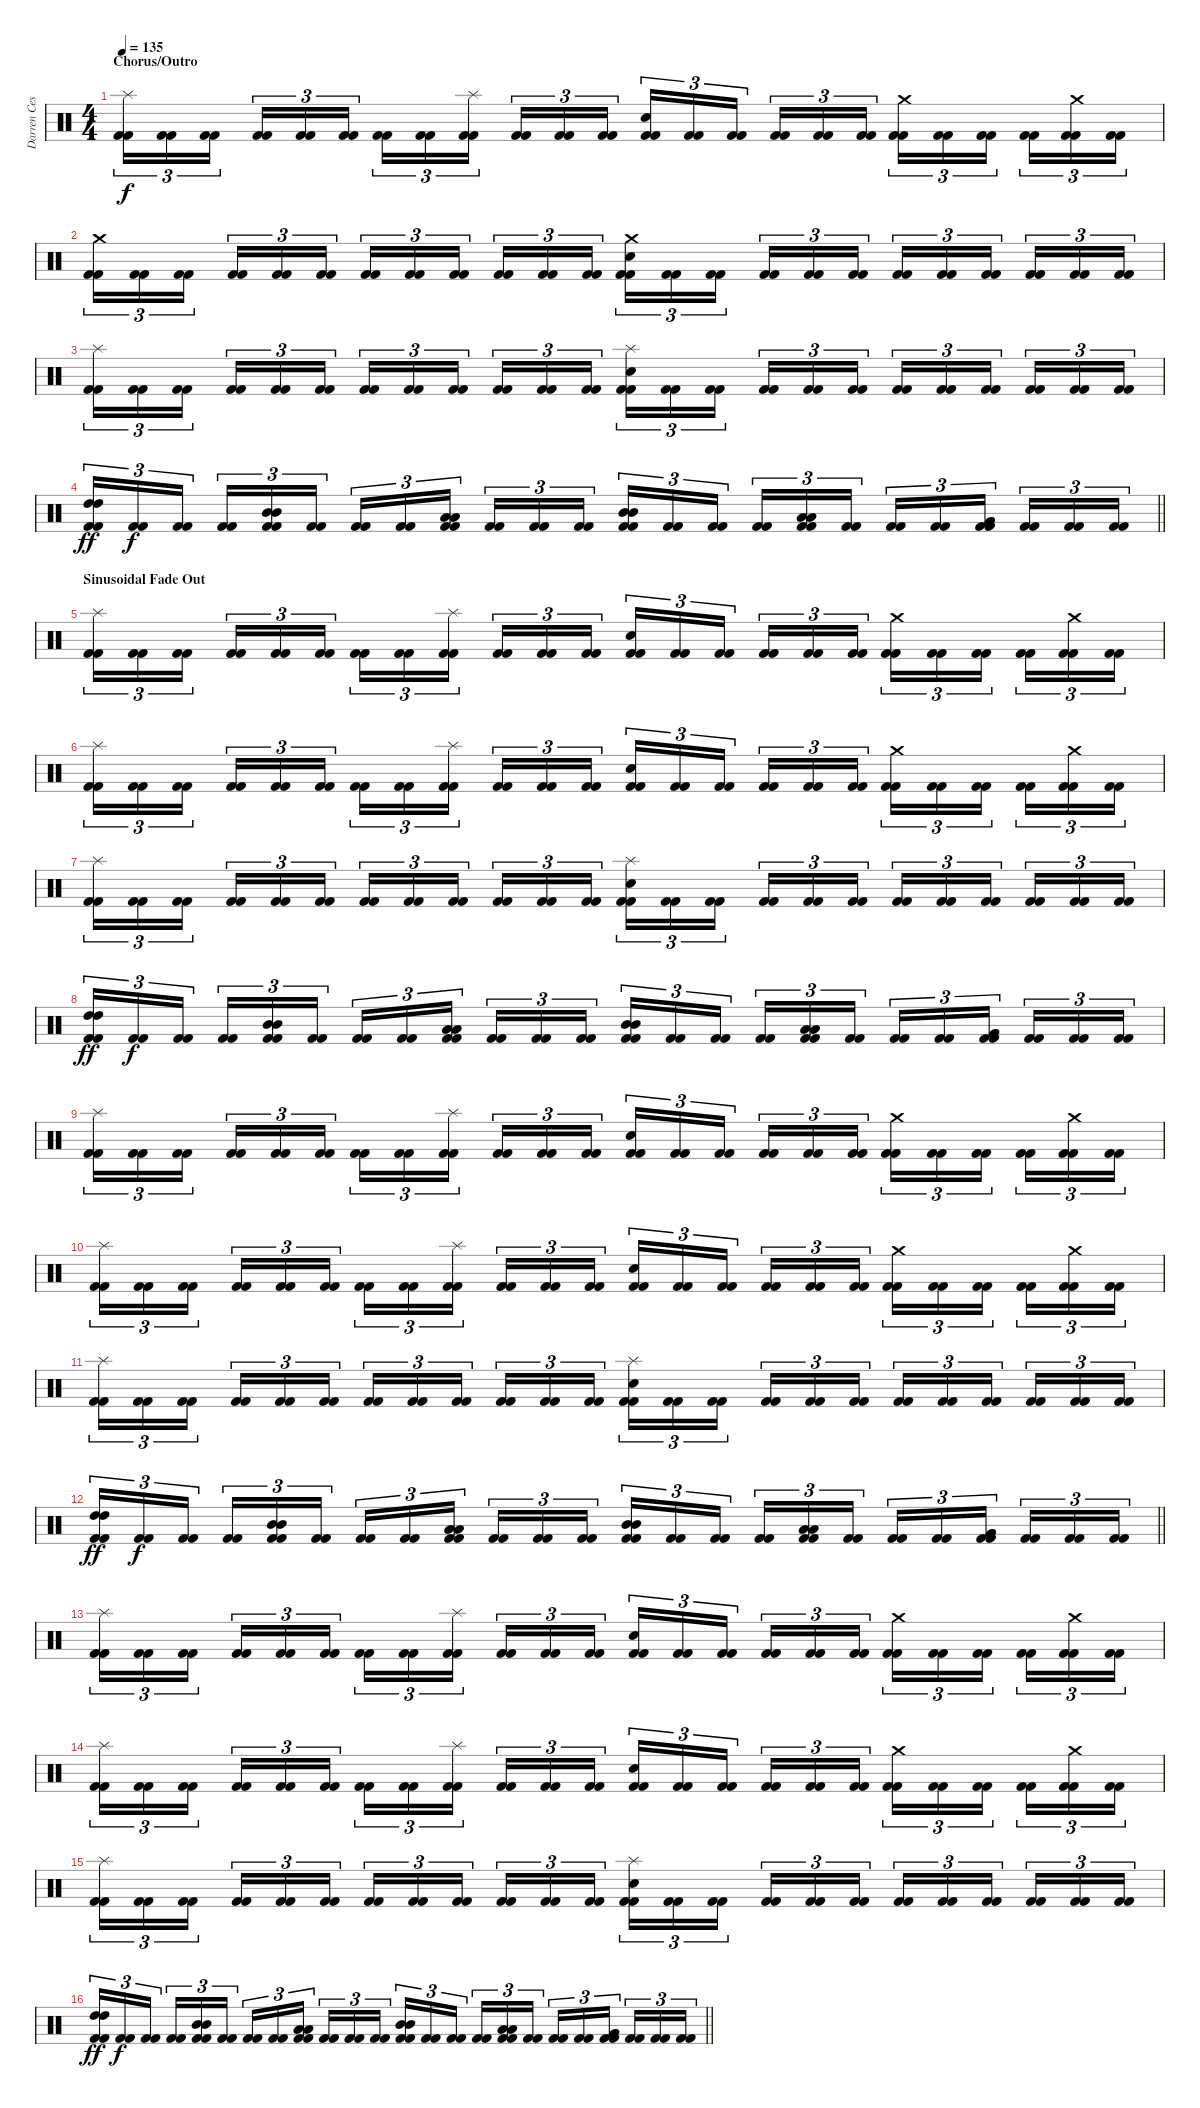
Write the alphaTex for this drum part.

\track ("Darren Cesca" "Darren Ces") {instrument percussion}
\staff {score}
\articulation defaults
\ts (4 4)
\section ("" "Chorus/Outro")
\tempo 135
\clef neutral
\ks c
("Splash (hit)" "Kick (hit) 2" "Kick (hit) 2").16{tu (3 2) dy f} ("Kick (hit) 2" "Kick (hit) 2").16{tu (3 2)} ("Kick (hit) 2" "Kick (hit) 2").16{tu (3 2) beam splitsecondary} ("Kick (hit) 2" "Kick (hit) 2").16{tu (3 2)} ("Kick (hit) 2" "Kick (hit) 2").16{tu (3 2)} ("Kick (hit) 2" "Kick (hit) 2").16{tu (3 2)} ("Kick (hit) 2" "Kick (hit) 2").16{tu (3 2)} ("Kick (hit) 2" "Kick (hit) 2").16{tu (3 2)} ("Splash (hit)" "Kick (hit) 2" "Kick (hit) 2").16{tu (3 2) beam splitsecondary} ("Kick (hit) 2" "Kick (hit) 2").16{tu (3 2)} ("Kick (hit) 2" "Kick (hit) 2").16{tu (3 2)} ("Kick (hit) 2" "Kick (hit) 2").16{tu (3 2)} ("Electric Snare (hit)" "Kick (hit) 2" "Kick (hit) 2").16{tu (3 2)} ("Kick (hit) 2" "Kick (hit) 2").16{tu (3 2)} ("Kick (hit) 2" "Kick (hit) 2").16{tu (3 2) beam splitsecondary} ("Kick (hit) 2" "Kick (hit) 2").16{tu (3 2)} ("Kick (hit) 2" "Kick (hit) 2").16{tu (3 2)} ("Kick (hit) 2" "Kick (hit) 2").16{tu (3 2)} ("Crash medium (hit)" "Kick (hit) 2" "Kick (hit) 2").16{tu (3 2)} ("Kick (hit) 2" "Kick (hit) 2").16{tu (3 2)} ("Kick (hit) 2" "Kick (hit) 2").16{tu (3 2) beam splitsecondary} ("Kick (hit) 2" "Kick (hit) 2").16{tu (3 2)} ("Crash medium (hit)" "Kick (hit) 2" "Kick (hit) 2").16{tu (3 2)} ("Kick (hit) 2" "Kick (hit) 2").16{tu (3 2)} |
("Crash medium (hit)" "Kick (hit) 2" "Kick (hit) 2").16{tu (3 2)} ("Kick (hit) 2" "Kick (hit) 2").16{tu (3 2)} ("Kick (hit) 2" "Kick (hit) 2").16{tu (3 2) beam splitsecondary} ("Kick (hit) 2" "Kick (hit) 2").16{tu (3 2)} ("Kick (hit) 2" "Kick (hit) 2").16{tu (3 2)} ("Kick (hit) 2" "Kick (hit) 2").16{tu (3 2)} ("Kick (hit) 2" "Kick (hit) 2").16{tu (3 2)} ("Kick (hit) 2" "Kick (hit) 2").16{tu (3 2)} ("Kick (hit) 2" "Kick (hit) 2").16{tu (3 2) beam splitsecondary} ("Kick (hit) 2" "Kick (hit) 2").16{tu (3 2)} ("Kick (hit) 2" "Kick (hit) 2").16{tu (3 2)} ("Kick (hit) 2" "Kick (hit) 2").16{tu (3 2)} ("Crash medium (hit)" "Electric Snare (hit)" "Kick (hit) 2" "Kick (hit) 2").16{tu (3 2)} ("Kick (hit) 2" "Kick (hit) 2").16{tu (3 2)} ("Kick (hit) 2" "Kick (hit) 2").16{tu (3 2) beam splitsecondary} ("Kick (hit) 2" "Kick (hit) 2").16{tu (3 2)} ("Kick (hit) 2" "Kick (hit) 2").16{tu (3 2)} ("Kick (hit) 2" "Kick (hit) 2").16{tu (3 2)} ("Kick (hit) 2" "Kick (hit) 2").16{tu (3 2)} ("Kick (hit) 2" "Kick (hit) 2").16{tu (3 2)} ("Kick (hit) 2" "Kick (hit) 2").16{tu (3 2) beam splitsecondary} ("Kick (hit) 2" "Kick (hit) 2").16{tu (3 2)} ("Kick (hit) 2" "Kick (hit) 2").16{tu (3 2)} ("Kick (hit) 2" "Kick (hit) 2").16{tu (3 2)} |
("Splash (hit)" "Kick (hit) 2" "Kick (hit) 2").16{tu (3 2)} ("Kick (hit) 2" "Kick (hit) 2").16{tu (3 2)} ("Kick (hit) 2" "Kick (hit) 2").16{tu (3 2) beam splitsecondary} ("Kick (hit) 2" "Kick (hit) 2").16{tu (3 2)} ("Kick (hit) 2" "Kick (hit) 2").16{tu (3 2)} ("Kick (hit) 2" "Kick (hit) 2").16{tu (3 2)} ("Kick (hit) 2" "Kick (hit) 2").16{tu (3 2)} ("Kick (hit) 2" "Kick (hit) 2").16{tu (3 2)} ("Kick (hit) 2" "Kick (hit) 2").16{tu (3 2) beam splitsecondary} ("Kick (hit) 2" "Kick (hit) 2").16{tu (3 2)} ("Kick (hit) 2" "Kick (hit) 2").16{tu (3 2)} ("Kick (hit) 2" "Kick (hit) 2").16{tu (3 2)} ("Splash (hit)" "Electric Snare (hit)" "Kick (hit) 2" "Kick (hit) 2").16{tu (3 2)} ("Kick (hit) 2" "Kick (hit) 2").16{tu (3 2)} ("Kick (hit) 2" "Kick (hit) 2").16{tu (3 2) beam splitsecondary} ("Kick (hit) 2" "Kick (hit) 2").16{tu (3 2)} ("Kick (hit) 2" "Kick (hit) 2").16{tu (3 2)} ("Kick (hit) 2" "Kick (hit) 2").16{tu (3 2)} ("Kick (hit) 2" "Kick (hit) 2").16{tu (3 2)} ("Kick (hit) 2" "Kick (hit) 2").16{tu (3 2)} ("Kick (hit) 2" "Kick (hit) 2").16{tu (3 2) beam splitsecondary} ("Kick (hit) 2" "Kick (hit) 2").16{tu (3 2)} ("Kick (hit) 2" "Kick (hit) 2").16{tu (3 2)} ("Kick (hit) 2" "Kick (hit) 2").16{tu (3 2)} |
\barLineRight lightlight
("High Tom (hit)" "High Tom (hit)" "Kick (hit) 2" "Kick (hit) 2").16{tu (3 2) dy ff} ("Kick (hit) 2" "Kick (hit) 2").16{tu (3 2) dy f} ("Kick (hit) 2" "Kick (hit) 2").16{tu (3 2) beam splitsecondary} ("Kick (hit) 2" "Kick (hit) 2").16{tu (3 2)} ("Mid Tom (hit)" "Mid Tom (hit)" "Kick (hit) 2" "Kick (hit) 2").16{tu (3 2)} ("Kick (hit) 2" "Kick (hit) 2").16{tu (3 2)} ("Kick (hit) 2" "Kick (hit) 2").16{tu (3 2)} ("Kick (hit) 2" "Kick (hit) 2").16{tu (3 2)} ("Low Tom (hit)" "Low Tom (hit)" "Kick (hit) 2" "Kick (hit) 2").16{tu (3 2) beam splitsecondary} ("Kick (hit) 2" "Kick (hit) 2").16{tu (3 2)} ("Kick (hit) 2" "Kick (hit) 2").16{tu (3 2)} ("Kick (hit) 2" "Kick (hit) 2").16{tu (3 2)} ("Mid Tom (hit)" "Mid Tom (hit)" "Kick (hit) 2" "Kick (hit) 2").16{tu (3 2)} ("Kick (hit) 2" "Kick (hit) 2").16{tu (3 2)} ("Kick (hit) 2" "Kick (hit) 2").16{tu (3 2) beam splitsecondary} ("Kick (hit) 2" "Kick (hit) 2").16{tu (3 2)} ("Low Tom (hit)" "Low Tom (hit)" "Kick (hit) 2" "Kick (hit) 2").16{tu (3 2)} ("Kick (hit) 2" "Kick (hit) 2").16{tu (3 2)} ("Kick (hit) 2" "Kick (hit) 2").16{tu (3 2)} ("Kick (hit) 2" "Kick (hit) 2").16{tu (3 2)} ("Very Low Tom (hit)" "Very Low Tom (hit)" "Kick (hit) 2" "Kick (hit) 2").16{tu (3 2) beam splitsecondary} ("Kick (hit) 2" "Kick (hit) 2").16{tu (3 2)} ("Kick (hit) 2" "Kick (hit) 2").16{tu (3 2)} ("Kick (hit) 2" "Kick (hit) 2").16{tu (3 2)} |
\section ("" "Sinusoidal Fade Out")
("Splash (hit)" "Kick (hit) 2" "Kick (hit) 2").16{tu (3 2)} ("Kick (hit) 2" "Kick (hit) 2").16{tu (3 2)} ("Kick (hit) 2" "Kick (hit) 2").16{tu (3 2) beam splitsecondary} ("Kick (hit) 2" "Kick (hit) 2").16{tu (3 2)} ("Kick (hit) 2" "Kick (hit) 2").16{tu (3 2)} ("Kick (hit) 2" "Kick (hit) 2").16{tu (3 2)} ("Kick (hit) 2" "Kick (hit) 2").16{tu (3 2)} ("Kick (hit) 2" "Kick (hit) 2").16{tu (3 2)} ("Splash (hit)" "Kick (hit) 2" "Kick (hit) 2").16{tu (3 2) beam splitsecondary} ("Kick (hit) 2" "Kick (hit) 2").16{tu (3 2)} ("Kick (hit) 2" "Kick (hit) 2").16{tu (3 2)} ("Kick (hit) 2" "Kick (hit) 2").16{tu (3 2)} ("Electric Snare (hit)" "Kick (hit) 2" "Kick (hit) 2").16{tu (3 2)} ("Kick (hit) 2" "Kick (hit) 2").16{tu (3 2)} ("Kick (hit) 2" "Kick (hit) 2").16{tu (3 2) beam splitsecondary} ("Kick (hit) 2" "Kick (hit) 2").16{tu (3 2)} ("Kick (hit) 2" "Kick (hit) 2").16{tu (3 2)} ("Kick (hit) 2" "Kick (hit) 2").16{tu (3 2)} ("Crash medium (hit)" "Kick (hit) 2" "Kick (hit) 2").16{tu (3 2)} ("Kick (hit) 2" "Kick (hit) 2").16{tu (3 2)} ("Kick (hit) 2" "Kick (hit) 2").16{tu (3 2) beam splitsecondary} ("Kick (hit) 2" "Kick (hit) 2").16{tu (3 2)} ("Crash medium (hit)" "Kick (hit) 2" "Kick (hit) 2").16{tu (3 2)} ("Kick (hit) 2" "Kick (hit) 2").16{tu (3 2)} |
("Splash (hit)" "Kick (hit) 2" "Kick (hit) 2").16{tu (3 2)} ("Kick (hit) 2" "Kick (hit) 2").16{tu (3 2)} ("Kick (hit) 2" "Kick (hit) 2").16{tu (3 2) beam splitsecondary} ("Kick (hit) 2" "Kick (hit) 2").16{tu (3 2)} ("Kick (hit) 2" "Kick (hit) 2").16{tu (3 2)} ("Kick (hit) 2" "Kick (hit) 2").16{tu (3 2)} ("Kick (hit) 2" "Kick (hit) 2").16{tu (3 2)} ("Kick (hit) 2" "Kick (hit) 2").16{tu (3 2)} ("Splash (hit)" "Kick (hit) 2" "Kick (hit) 2").16{tu (3 2) beam splitsecondary} ("Kick (hit) 2" "Kick (hit) 2").16{tu (3 2)} ("Kick (hit) 2" "Kick (hit) 2").16{tu (3 2)} ("Kick (hit) 2" "Kick (hit) 2").16{tu (3 2)} ("Electric Snare (hit)" "Kick (hit) 2" "Kick (hit) 2").16{tu (3 2)} ("Kick (hit) 2" "Kick (hit) 2").16{tu (3 2)} ("Kick (hit) 2" "Kick (hit) 2").16{tu (3 2) beam splitsecondary} ("Kick (hit) 2" "Kick (hit) 2").16{tu (3 2)} ("Kick (hit) 2" "Kick (hit) 2").16{tu (3 2)} ("Kick (hit) 2" "Kick (hit) 2").16{tu (3 2)} ("Crash medium (hit)" "Kick (hit) 2" "Kick (hit) 2").16{tu (3 2)} ("Kick (hit) 2" "Kick (hit) 2").16{tu (3 2)} ("Kick (hit) 2" "Kick (hit) 2").16{tu (3 2) beam splitsecondary} ("Kick (hit) 2" "Kick (hit) 2").16{tu (3 2)} ("Crash medium (hit)" "Kick (hit) 2" "Kick (hit) 2").16{tu (3 2)} ("Kick (hit) 2" "Kick (hit) 2").16{tu (3 2)} |
("Splash (hit)" "Kick (hit) 2" "Kick (hit) 2").16{tu (3 2)} ("Kick (hit) 2" "Kick (hit) 2").16{tu (3 2)} ("Kick (hit) 2" "Kick (hit) 2").16{tu (3 2) beam splitsecondary} ("Kick (hit) 2" "Kick (hit) 2").16{tu (3 2)} ("Kick (hit) 2" "Kick (hit) 2").16{tu (3 2)} ("Kick (hit) 2" "Kick (hit) 2").16{tu (3 2)} ("Kick (hit) 2" "Kick (hit) 2").16{tu (3 2)} ("Kick (hit) 2" "Kick (hit) 2").16{tu (3 2)} ("Kick (hit) 2" "Kick (hit) 2").16{tu (3 2) beam splitsecondary} ("Kick (hit) 2" "Kick (hit) 2").16{tu (3 2)} ("Kick (hit) 2" "Kick (hit) 2").16{tu (3 2)} ("Kick (hit) 2" "Kick (hit) 2").16{tu (3 2)} ("Splash (hit)" "Electric Snare (hit)" "Kick (hit) 2" "Kick (hit) 2").16{tu (3 2)} ("Kick (hit) 2" "Kick (hit) 2").16{tu (3 2)} ("Kick (hit) 2" "Kick (hit) 2").16{tu (3 2) beam splitsecondary} ("Kick (hit) 2" "Kick (hit) 2").16{tu (3 2)} ("Kick (hit) 2" "Kick (hit) 2").16{tu (3 2)} ("Kick (hit) 2" "Kick (hit) 2").16{tu (3 2)} ("Kick (hit) 2" "Kick (hit) 2").16{tu (3 2)} ("Kick (hit) 2" "Kick (hit) 2").16{tu (3 2)} ("Kick (hit) 2" "Kick (hit) 2").16{tu (3 2) beam splitsecondary} ("Kick (hit) 2" "Kick (hit) 2").16{tu (3 2)} ("Kick (hit) 2" "Kick (hit) 2").16{tu (3 2)} ("Kick (hit) 2" "Kick (hit) 2").16{tu (3 2)} |
("High Tom (hit)" "High Tom (hit)" "Kick (hit) 2" "Kick (hit) 2").16{tu (3 2) dy ff} ("Kick (hit) 2" "Kick (hit) 2").16{tu (3 2) dy f} ("Kick (hit) 2" "Kick (hit) 2").16{tu (3 2) beam splitsecondary} ("Kick (hit) 2" "Kick (hit) 2").16{tu (3 2)} ("Mid Tom (hit)" "Mid Tom (hit)" "Kick (hit) 2" "Kick (hit) 2").16{tu (3 2)} ("Kick (hit) 2" "Kick (hit) 2").16{tu (3 2)} ("Kick (hit) 2" "Kick (hit) 2").16{tu (3 2)} ("Kick (hit) 2" "Kick (hit) 2").16{tu (3 2)} ("Low Tom (hit)" "Low Tom (hit)" "Kick (hit) 2" "Kick (hit) 2").16{tu (3 2) beam splitsecondary} ("Kick (hit) 2" "Kick (hit) 2").16{tu (3 2)} ("Kick (hit) 2" "Kick (hit) 2").16{tu (3 2)} ("Kick (hit) 2" "Kick (hit) 2").16{tu (3 2)} ("Mid Tom (hit)" "Mid Tom (hit)" "Kick (hit) 2" "Kick (hit) 2").16{tu (3 2)} ("Kick (hit) 2" "Kick (hit) 2").16{tu (3 2)} ("Kick (hit) 2" "Kick (hit) 2").16{tu (3 2) beam splitsecondary} ("Kick (hit) 2" "Kick (hit) 2").16{tu (3 2)} ("Low Tom (hit)" "Low Tom (hit)" "Kick (hit) 2" "Kick (hit) 2").16{tu (3 2)} ("Kick (hit) 2" "Kick (hit) 2").16{tu (3 2)} ("Kick (hit) 2" "Kick (hit) 2").16{tu (3 2)} ("Kick (hit) 2" "Kick (hit) 2").16{tu (3 2)} ("Very Low Tom (hit)" "Very Low Tom (hit)" "Kick (hit) 2" "Kick (hit) 2").16{tu (3 2) beam splitsecondary} ("Kick (hit) 2" "Kick (hit) 2").16{tu (3 2)} ("Kick (hit) 2" "Kick (hit) 2").16{tu (3 2)} ("Kick (hit) 2" "Kick (hit) 2").16{tu (3 2)} |
("Splash (hit)" "Kick (hit) 2" "Kick (hit) 2").16{tu (3 2)} ("Kick (hit) 2" "Kick (hit) 2").16{tu (3 2)} ("Kick (hit) 2" "Kick (hit) 2").16{tu (3 2) beam splitsecondary} ("Kick (hit) 2" "Kick (hit) 2").16{tu (3 2)} ("Kick (hit) 2" "Kick (hit) 2").16{tu (3 2)} ("Kick (hit) 2" "Kick (hit) 2").16{tu (3 2)} ("Kick (hit) 2" "Kick (hit) 2").16{tu (3 2)} ("Kick (hit) 2" "Kick (hit) 2").16{tu (3 2)} ("Splash (hit)" "Kick (hit) 2" "Kick (hit) 2").16{tu (3 2) beam splitsecondary} ("Kick (hit) 2" "Kick (hit) 2").16{tu (3 2)} ("Kick (hit) 2" "Kick (hit) 2").16{tu (3 2)} ("Kick (hit) 2" "Kick (hit) 2").16{tu (3 2)} ("Electric Snare (hit)" "Kick (hit) 2" "Kick (hit) 2").16{tu (3 2)} ("Kick (hit) 2" "Kick (hit) 2").16{tu (3 2)} ("Kick (hit) 2" "Kick (hit) 2").16{tu (3 2) beam splitsecondary} ("Kick (hit) 2" "Kick (hit) 2").16{tu (3 2)} ("Kick (hit) 2" "Kick (hit) 2").16{tu (3 2)} ("Kick (hit) 2" "Kick (hit) 2").16{tu (3 2)} ("Crash medium (hit)" "Kick (hit) 2" "Kick (hit) 2").16{tu (3 2)} ("Kick (hit) 2" "Kick (hit) 2").16{tu (3 2)} ("Kick (hit) 2" "Kick (hit) 2").16{tu (3 2) beam splitsecondary} ("Kick (hit) 2" "Kick (hit) 2").16{tu (3 2)} ("Crash medium (hit)" "Kick (hit) 2" "Kick (hit) 2").16{tu (3 2)} ("Kick (hit) 2" "Kick (hit) 2").16{tu (3 2)} |
("Splash (hit)" "Kick (hit) 2" "Kick (hit) 2").16{tu (3 2)} ("Kick (hit) 2" "Kick (hit) 2").16{tu (3 2)} ("Kick (hit) 2" "Kick (hit) 2").16{tu (3 2) beam splitsecondary} ("Kick (hit) 2" "Kick (hit) 2").16{tu (3 2)} ("Kick (hit) 2" "Kick (hit) 2").16{tu (3 2)} ("Kick (hit) 2" "Kick (hit) 2").16{tu (3 2)} ("Kick (hit) 2" "Kick (hit) 2").16{tu (3 2)} ("Kick (hit) 2" "Kick (hit) 2").16{tu (3 2)} ("Splash (hit)" "Kick (hit) 2" "Kick (hit) 2").16{tu (3 2) beam splitsecondary} ("Kick (hit) 2" "Kick (hit) 2").16{tu (3 2)} ("Kick (hit) 2" "Kick (hit) 2").16{tu (3 2)} ("Kick (hit) 2" "Kick (hit) 2").16{tu (3 2)} ("Electric Snare (hit)" "Kick (hit) 2" "Kick (hit) 2").16{tu (3 2)} ("Kick (hit) 2" "Kick (hit) 2").16{tu (3 2)} ("Kick (hit) 2" "Kick (hit) 2").16{tu (3 2) beam splitsecondary} ("Kick (hit) 2" "Kick (hit) 2").16{tu (3 2)} ("Kick (hit) 2" "Kick (hit) 2").16{tu (3 2)} ("Kick (hit) 2" "Kick (hit) 2").16{tu (3 2)} ("Crash medium (hit)" "Kick (hit) 2" "Kick (hit) 2").16{tu (3 2)} ("Kick (hit) 2" "Kick (hit) 2").16{tu (3 2)} ("Kick (hit) 2" "Kick (hit) 2").16{tu (3 2) beam splitsecondary} ("Kick (hit) 2" "Kick (hit) 2").16{tu (3 2)} ("Crash medium (hit)" "Kick (hit) 2" "Kick (hit) 2").16{tu (3 2)} ("Kick (hit) 2" "Kick (hit) 2").16{tu (3 2)} |
("Splash (hit)" "Kick (hit) 2" "Kick (hit) 2").16{tu (3 2)} ("Kick (hit) 2" "Kick (hit) 2").16{tu (3 2)} ("Kick (hit) 2" "Kick (hit) 2").16{tu (3 2) beam splitsecondary} ("Kick (hit) 2" "Kick (hit) 2").16{tu (3 2)} ("Kick (hit) 2" "Kick (hit) 2").16{tu (3 2)} ("Kick (hit) 2" "Kick (hit) 2").16{tu (3 2)} ("Kick (hit) 2" "Kick (hit) 2").16{tu (3 2)} ("Kick (hit) 2" "Kick (hit) 2").16{tu (3 2)} ("Kick (hit) 2" "Kick (hit) 2").16{tu (3 2) beam splitsecondary} ("Kick (hit) 2" "Kick (hit) 2").16{tu (3 2)} ("Kick (hit) 2" "Kick (hit) 2").16{tu (3 2)} ("Kick (hit) 2" "Kick (hit) 2").16{tu (3 2)} ("Splash (hit)" "Electric Snare (hit)" "Kick (hit) 2" "Kick (hit) 2").16{tu (3 2)} ("Kick (hit) 2" "Kick (hit) 2").16{tu (3 2)} ("Kick (hit) 2" "Kick (hit) 2").16{tu (3 2) beam splitsecondary} ("Kick (hit) 2" "Kick (hit) 2").16{tu (3 2)} ("Kick (hit) 2" "Kick (hit) 2").16{tu (3 2)} ("Kick (hit) 2" "Kick (hit) 2").16{tu (3 2)} ("Kick (hit) 2" "Kick (hit) 2").16{tu (3 2)} ("Kick (hit) 2" "Kick (hit) 2").16{tu (3 2)} ("Kick (hit) 2" "Kick (hit) 2").16{tu (3 2) beam splitsecondary} ("Kick (hit) 2" "Kick (hit) 2").16{tu (3 2)} ("Kick (hit) 2" "Kick (hit) 2").16{tu (3 2)} ("Kick (hit) 2" "Kick (hit) 2").16{tu (3 2)} |
\barLineRight lightlight
("High Tom (hit)" "High Tom (hit)" "Kick (hit) 2" "Kick (hit) 2").16{tu (3 2) dy ff} ("Kick (hit) 2" "Kick (hit) 2").16{tu (3 2) dy f} ("Kick (hit) 2" "Kick (hit) 2").16{tu (3 2) beam splitsecondary} ("Kick (hit) 2" "Kick (hit) 2").16{tu (3 2)} ("Mid Tom (hit)" "Mid Tom (hit)" "Kick (hit) 2" "Kick (hit) 2").16{tu (3 2)} ("Kick (hit) 2" "Kick (hit) 2").16{tu (3 2)} ("Kick (hit) 2" "Kick (hit) 2").16{tu (3 2)} ("Kick (hit) 2" "Kick (hit) 2").16{tu (3 2)} ("Low Tom (hit)" "Low Tom (hit)" "Kick (hit) 2" "Kick (hit) 2").16{tu (3 2) beam splitsecondary} ("Kick (hit) 2" "Kick (hit) 2").16{tu (3 2)} ("Kick (hit) 2" "Kick (hit) 2").16{tu (3 2)} ("Kick (hit) 2" "Kick (hit) 2").16{tu (3 2)} ("Mid Tom (hit)" "Mid Tom (hit)" "Kick (hit) 2" "Kick (hit) 2").16{tu (3 2)} ("Kick (hit) 2" "Kick (hit) 2").16{tu (3 2)} ("Kick (hit) 2" "Kick (hit) 2").16{tu (3 2) beam splitsecondary} ("Kick (hit) 2" "Kick (hit) 2").16{tu (3 2)} ("Low Tom (hit)" "Low Tom (hit)" "Kick (hit) 2" "Kick (hit) 2").16{tu (3 2)} ("Kick (hit) 2" "Kick (hit) 2").16{tu (3 2)} ("Kick (hit) 2" "Kick (hit) 2").16{tu (3 2)} ("Kick (hit) 2" "Kick (hit) 2").16{tu (3 2)} ("Very Low Tom (hit)" "Very Low Tom (hit)" "Kick (hit) 2" "Kick (hit) 2").16{tu (3 2) beam splitsecondary} ("Kick (hit) 2" "Kick (hit) 2").16{tu (3 2)} ("Kick (hit) 2" "Kick (hit) 2").16{tu (3 2)} ("Kick (hit) 2" "Kick (hit) 2").16{tu (3 2)} |
("Splash (hit)" "Kick (hit) 2" "Kick (hit) 2").16{tu (3 2)} ("Kick (hit) 2" "Kick (hit) 2").16{tu (3 2)} ("Kick (hit) 2" "Kick (hit) 2").16{tu (3 2) beam splitsecondary} ("Kick (hit) 2" "Kick (hit) 2").16{tu (3 2)} ("Kick (hit) 2" "Kick (hit) 2").16{tu (3 2)} ("Kick (hit) 2" "Kick (hit) 2").16{tu (3 2)} ("Kick (hit) 2" "Kick (hit) 2").16{tu (3 2)} ("Kick (hit) 2" "Kick (hit) 2").16{tu (3 2)} ("Splash (hit)" "Kick (hit) 2" "Kick (hit) 2").16{tu (3 2) beam splitsecondary} ("Kick (hit) 2" "Kick (hit) 2").16{tu (3 2)} ("Kick (hit) 2" "Kick (hit) 2").16{tu (3 2)} ("Kick (hit) 2" "Kick (hit) 2").16{tu (3 2)} ("Electric Snare (hit)" "Kick (hit) 2" "Kick (hit) 2").16{tu (3 2)} ("Kick (hit) 2" "Kick (hit) 2").16{tu (3 2)} ("Kick (hit) 2" "Kick (hit) 2").16{tu (3 2) beam splitsecondary} ("Kick (hit) 2" "Kick (hit) 2").16{tu (3 2)} ("Kick (hit) 2" "Kick (hit) 2").16{tu (3 2)} ("Kick (hit) 2" "Kick (hit) 2").16{tu (3 2)} ("Crash medium (hit)" "Kick (hit) 2" "Kick (hit) 2").16{tu (3 2)} ("Kick (hit) 2" "Kick (hit) 2").16{tu (3 2)} ("Kick (hit) 2" "Kick (hit) 2").16{tu (3 2) beam splitsecondary} ("Kick (hit) 2" "Kick (hit) 2").16{tu (3 2)} ("Crash medium (hit)" "Kick (hit) 2" "Kick (hit) 2").16{tu (3 2)} ("Kick (hit) 2" "Kick (hit) 2").16{tu (3 2)} |
("Splash (hit)" "Kick (hit) 2" "Kick (hit) 2").16{tu (3 2)} ("Kick (hit) 2" "Kick (hit) 2").16{tu (3 2)} ("Kick (hit) 2" "Kick (hit) 2").16{tu (3 2) beam splitsecondary} ("Kick (hit) 2" "Kick (hit) 2").16{tu (3 2)} ("Kick (hit) 2" "Kick (hit) 2").16{tu (3 2)} ("Kick (hit) 2" "Kick (hit) 2").16{tu (3 2)} ("Kick (hit) 2" "Kick (hit) 2").16{tu (3 2)} ("Kick (hit) 2" "Kick (hit) 2").16{tu (3 2)} ("Splash (hit)" "Kick (hit) 2" "Kick (hit) 2").16{tu (3 2) beam splitsecondary} ("Kick (hit) 2" "Kick (hit) 2").16{tu (3 2)} ("Kick (hit) 2" "Kick (hit) 2").16{tu (3 2)} ("Kick (hit) 2" "Kick (hit) 2").16{tu (3 2)} ("Electric Snare (hit)" "Kick (hit) 2" "Kick (hit) 2").16{tu (3 2)} ("Kick (hit) 2" "Kick (hit) 2").16{tu (3 2)} ("Kick (hit) 2" "Kick (hit) 2").16{tu (3 2) beam splitsecondary} ("Kick (hit) 2" "Kick (hit) 2").16{tu (3 2)} ("Kick (hit) 2" "Kick (hit) 2").16{tu (3 2)} ("Kick (hit) 2" "Kick (hit) 2").16{tu (3 2)} ("Crash medium (hit)" "Kick (hit) 2" "Kick (hit) 2").16{tu (3 2)} ("Kick (hit) 2" "Kick (hit) 2").16{tu (3 2)} ("Kick (hit) 2" "Kick (hit) 2").16{tu (3 2) beam splitsecondary} ("Kick (hit) 2" "Kick (hit) 2").16{tu (3 2)} ("Crash medium (hit)" "Kick (hit) 2" "Kick (hit) 2").16{tu (3 2)} ("Kick (hit) 2" "Kick (hit) 2").16{tu (3 2)} |
("Splash (hit)" "Kick (hit) 2" "Kick (hit) 2").16{tu (3 2)} ("Kick (hit) 2" "Kick (hit) 2").16{tu (3 2)} ("Kick (hit) 2" "Kick (hit) 2").16{tu (3 2) beam splitsecondary} ("Kick (hit) 2" "Kick (hit) 2").16{tu (3 2)} ("Kick (hit) 2" "Kick (hit) 2").16{tu (3 2)} ("Kick (hit) 2" "Kick (hit) 2").16{tu (3 2)} ("Kick (hit) 2" "Kick (hit) 2").16{tu (3 2)} ("Kick (hit) 2" "Kick (hit) 2").16{tu (3 2)} ("Kick (hit) 2" "Kick (hit) 2").16{tu (3 2) beam splitsecondary} ("Kick (hit) 2" "Kick (hit) 2").16{tu (3 2)} ("Kick (hit) 2" "Kick (hit) 2").16{tu (3 2)} ("Kick (hit) 2" "Kick (hit) 2").16{tu (3 2)} ("Splash (hit)" "Electric Snare (hit)" "Kick (hit) 2" "Kick (hit) 2").16{tu (3 2)} ("Kick (hit) 2" "Kick (hit) 2").16{tu (3 2)} ("Kick (hit) 2" "Kick (hit) 2").16{tu (3 2) beam splitsecondary} ("Kick (hit) 2" "Kick (hit) 2").16{tu (3 2)} ("Kick (hit) 2" "Kick (hit) 2").16{tu (3 2)} ("Kick (hit) 2" "Kick (hit) 2").16{tu (3 2)} ("Kick (hit) 2" "Kick (hit) 2").16{tu (3 2)} ("Kick (hit) 2" "Kick (hit) 2").16{tu (3 2)} ("Kick (hit) 2" "Kick (hit) 2").16{tu (3 2) beam splitsecondary} ("Kick (hit) 2" "Kick (hit) 2").16{tu (3 2)} ("Kick (hit) 2" "Kick (hit) 2").16{tu (3 2)} ("Kick (hit) 2" "Kick (hit) 2").16{tu (3 2)} |
\barLineRight lightlight
("High Tom (hit)" "High Tom (hit)" "Kick (hit) 2" "Kick (hit) 2").16{tu (3 2) dy ff} ("Kick (hit) 2" "Kick (hit) 2").16{tu (3 2) dy f} ("Kick (hit) 2" "Kick (hit) 2").16{tu (3 2) beam splitsecondary} ("Kick (hit) 2" "Kick (hit) 2").16{tu (3 2)} ("Mid Tom (hit)" "Mid Tom (hit)" "Kick (hit) 2" "Kick (hit) 2").16{tu (3 2)} ("Kick (hit) 2" "Kick (hit) 2").16{tu (3 2)} ("Kick (hit) 2" "Kick (hit) 2").16{tu (3 2)} ("Kick (hit) 2" "Kick (hit) 2").16{tu (3 2)} ("Low Tom (hit)" "Low Tom (hit)" "Kick (hit) 2" "Kick (hit) 2").16{tu (3 2) beam splitsecondary} ("Kick (hit) 2" "Kick (hit) 2").16{tu (3 2)} ("Kick (hit) 2" "Kick (hit) 2").16{tu (3 2)} ("Kick (hit) 2" "Kick (hit) 2").16{tu (3 2)} ("Mid Tom (hit)" "Mid Tom (hit)" "Kick (hit) 2" "Kick (hit) 2").16{tu (3 2)} ("Kick (hit) 2" "Kick (hit) 2").16{tu (3 2)} ("Kick (hit) 2" "Kick (hit) 2").16{tu (3 2) beam splitsecondary} ("Kick (hit) 2" "Kick (hit) 2").16{tu (3 2)} ("Low Tom (hit)" "Low Tom (hit)" "Kick (hit) 2" "Kick (hit) 2").16{tu (3 2)} ("Kick (hit) 2" "Kick (hit) 2").16{tu (3 2)} ("Kick (hit) 2" "Kick (hit) 2").16{tu (3 2)} ("Kick (hit) 2" "Kick (hit) 2").16{tu (3 2)} ("Very Low Tom (hit)" "Very Low Tom (hit)" "Kick (hit) 2" "Kick (hit) 2").16{tu (3 2) beam splitsecondary} ("Kick (hit) 2" "Kick (hit) 2").16{tu (3 2)} ("Kick (hit) 2" "Kick (hit) 2").16{tu (3 2)} ("Kick (hit) 2" "Kick (hit) 2").16{tu (3 2)}
